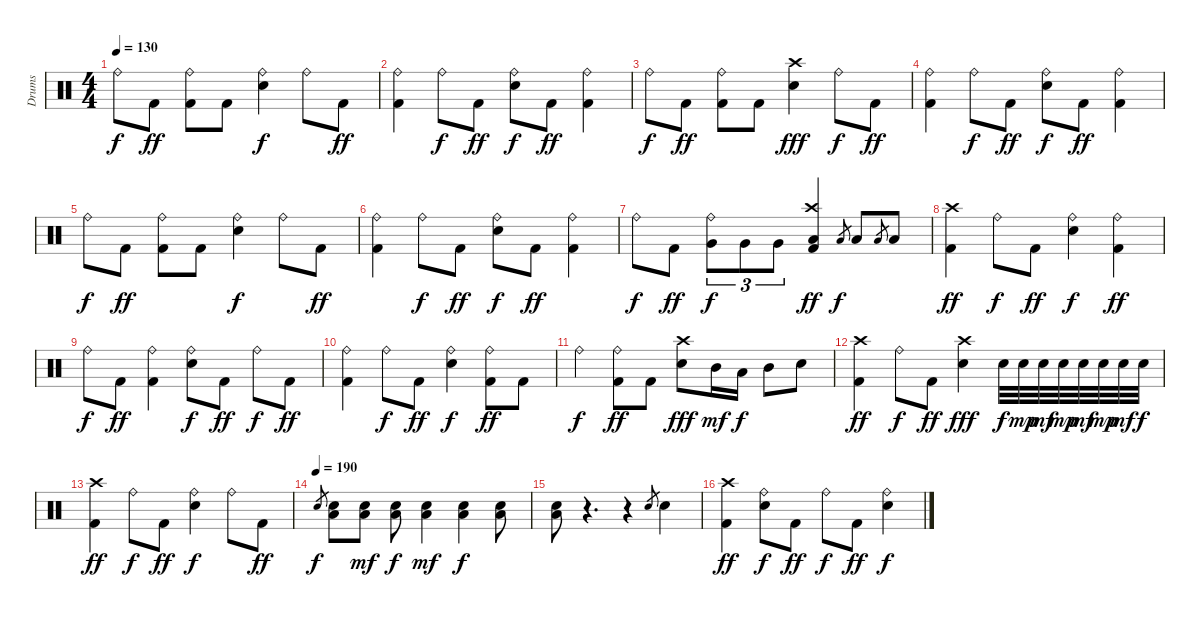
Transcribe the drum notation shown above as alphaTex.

\track ("Drums" "Drums") {instrument percussion}
\staff {score}
\articulation defaults
\ts (4 4)
\tempo 130
\clef neutral
\ks c "Ride (bell)".8{dy f} "Kick (hit) 2".8{dy ff}
("Ride (bell)" "Kick (hit) 2").8 "Kick (hit) 2".8 ("Ride (bell)" "Snare (hit) 2").4{dy f} "Ride (bell)".8 "Kick (hit) 2".8{dy ff} |
("Ride (bell)" "Kick (hit) 2").4 "Ride (bell)".8{dy f} "Kick (hit) 2".8{dy ff} ("Ride (bell)" "Snare (hit) 2").8{dy f} "Kick (hit) 2".8{dy ff} ("Ride (bell)" "Kick (hit) 2").4 |
"Ride (bell)".8{dy f} "Kick (hit) 2".8{dy ff} ("Ride (bell)" "Kick (hit) 2").8 "Kick (hit) 2".8 ("Crash high (hit)" "Snare (hit) 2").4{dy fff} "Ride (bell)".8{dy f} "Kick (hit) 2".8{dy ff} |
("Ride (bell)" "Kick (hit) 2").4 "Ride (bell)".8{dy f} "Kick (hit) 2".8{dy ff} ("Ride (bell)" "Snare (hit) 2").8{dy f} "Kick (hit) 2".8{dy ff} ("Ride (bell)" "Kick (hit) 2").4 |
"Ride (bell)".8{dy f} "Kick (hit) 2".8{dy ff} ("Ride (bell)" "Kick (hit) 2").8 "Kick (hit) 2".8 ("Ride (bell)" "Snare (hit) 2").4{dy f} "Ride (bell)".8 "Kick (hit) 2".8{dy ff} |
("Ride (bell)" "Kick (hit) 2").4 "Ride (bell)".8{dy f} "Kick (hit) 2".8{dy ff} ("Ride (bell)" "Snare (hit) 2").8{dy f} "Kick (hit) 2".8{dy ff} ("Ride (bell)" "Kick (hit) 2").4 |
"Ride (bell)".8{dy f} "Kick (hit) 2".8{dy ff} ("Ride (bell)" "Very Low Tom (hit)").8{tu (3 2) dy f} "Very Low Tom (hit)".8{tu (3 2)} "Very Low Tom (hit)".8{tu (3 2)} ("Crash high (hit)" "Low Floor Tom (hit)" "Kick (hit) 2").4{dy ff} "Low Tom (hit)".8{gr dy f} "Low Tom (hit)".8 "Low Tom (hit)".8{gr} "Low Tom (hit)".8 |
("Crash high (hit)" "Kick (hit) 2").4{dy ff} "Ride (bell)".8{dy f} "Kick (hit) 2".8{dy ff} ("Ride (bell)" "Snare (hit) 2").4{dy f} ("Ride (bell)" "Kick (hit) 2").4{dy ff} |
"Ride (bell)".8{dy f} "Kick (hit) 2".8{dy ff} ("Ride (bell)" "Kick (hit) 2").4 ("Ride (bell)" "Snare (hit) 2").8{dy f} "Kick (hit) 2".8{dy ff} "Ride (bell)".8{dy f} "Kick (hit) 2".8{dy ff} |
("Ride (bell)" "Kick (hit) 2").4 "Ride (bell)".8{dy f} "Kick (hit) 2".8{dy ff} ("Ride (bell)" "Snare (hit) 2").4{dy f} ("Ride (bell)" "Kick (hit) 2").8{dy ff} "Kick (hit) 2".8 |
"Ride (bell)".4{dy f} ("Ride (bell)" "Kick (hit) 2").8{dy ff} "Kick (hit) 2".8 ("Crash high (hit)" "Snare (hit) 2").8{dy fff} "Mid Tom (hit)".16{dy mf} "Low Tom (hit)".16{dy f} "Mid Tom (hit)".8 "Snare (hit) 2".8 |
("Crash high (hit)" "Kick (hit) 2").4{dy ff} "Ride (bell)".8{dy f} "Kick (hit) 2".8{dy ff} ("Crash high (hit)" "Snare (hit) 2").4{dy fff} "Snare (hit) 2".32{dy f} "Snare (hit) 2".32{dy mp} "Snare (hit) 2".32{dy mf} "Snare (hit) 2".32{dy mp} "Snare (hit) 2".32{dy mf} "Snare (hit) 2".32{dy mp} "Snare (hit) 2".32{dy mf} "Snare (hit) 2".32{dy f} |
("Crash high (hit)" "Kick (hit) 2").4{dy ff} "Ride (bell)".8{dy f} "Kick (hit) 2".8{dy ff} ("Ride (bell)" "Snare (hit) 2").4{dy f} "Ride (bell)".8 "Kick (hit) 2".8{dy ff} |
\tempo (190)
"Snare (hit) 2".8{gr dy f} ("Low Floor Tom (hit)" "Snare (hit) 2").8 ("Low Floor Tom (hit)" "Snare (hit) 2").8{dy mf} ("Low Floor Tom (hit)" "Snare (hit) 2").8{dy f} ("Low Floor Tom (hit)" "Snare (hit) 2").4{dy mf} ("Low Floor Tom (hit)" "Snare (hit) 2").4{dy f} ("Low Floor Tom (hit)" "Snare (hit) 2").8 |
("Low Floor Tom (hit)" "Snare (hit) 2").8 r.4{d} r.4 "Snare (hit) 2".8{gr} "Snare (hit) 2".4 |
("Crash high (hit)" "Kick (hit) 2").4{dy ff} ("Ride (bell)" "Snare (hit) 2").8{dy f} "Kick (hit) 2".8{dy ff} "Ride (bell)".8{dy f} "Kick (hit) 2".8{dy ff} ("Ride (bell)" "Snare (hit) 2").4{dy f}
